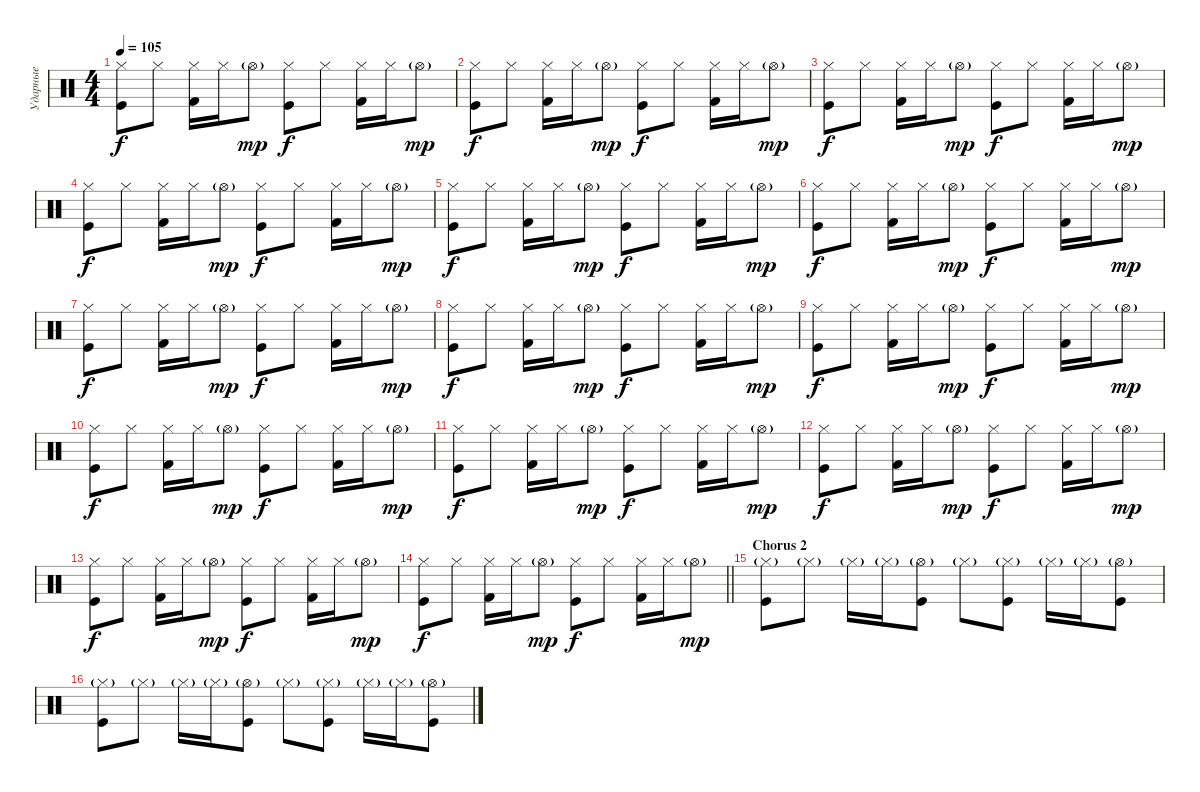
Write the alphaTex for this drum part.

\track ("Ударные" "Ударные") {instrument percussion}
\staff {score}
\articulation defaults
\ts (4 4)
\tempo 105
\clef neutral
\ks c
("Hi-Hat (closed)" "Kick (hit)").8{dy f} "Hi-Hat (closed)".8 ("Hi-Hat (closed)" "Kick (hit) 2").16 "Hi-Hat (closed)".16 "Hi-Hat (open)"{g}.8{dy mp} ("Hi-Hat (closed)" "Kick (hit)").8{dy f} "Hi-Hat (closed)".8 ("Hi-Hat (closed)" "Kick (hit) 2").16 "Hi-Hat (closed)".16 "Hi-Hat (open)"{g}.8{dy mp} |
("Hi-Hat (closed)" "Kick (hit)").8{dy f} "Hi-Hat (closed)".8 ("Hi-Hat (closed)" "Kick (hit) 2").16 "Hi-Hat (closed)".16 "Hi-Hat (open)"{g}.8{dy mp} ("Hi-Hat (closed)" "Kick (hit)").8{dy f} "Hi-Hat (closed)".8 ("Hi-Hat (closed)" "Kick (hit) 2").16 "Hi-Hat (closed)".16 "Hi-Hat (open)"{g}.8{dy mp} |
("Hi-Hat (closed)" "Kick (hit)").8{dy f} "Hi-Hat (closed)".8 ("Hi-Hat (closed)" "Kick (hit) 2").16 "Hi-Hat (closed)".16 "Hi-Hat (open)"{g}.8{dy mp} ("Hi-Hat (closed)" "Kick (hit)").8{dy f} "Hi-Hat (closed)".8 ("Hi-Hat (closed)" "Kick (hit) 2").16 "Hi-Hat (closed)".16 "Hi-Hat (open)"{g}.8{dy mp} |
("Hi-Hat (closed)" "Kick (hit)").8{dy f} "Hi-Hat (closed)".8 ("Hi-Hat (closed)" "Kick (hit) 2").16 "Hi-Hat (closed)".16 "Hi-Hat (open)"{g}.8{dy mp} ("Hi-Hat (closed)" "Kick (hit)").8{dy f} "Hi-Hat (closed)".8 ("Hi-Hat (closed)" "Kick (hit) 2").16 "Hi-Hat (closed)".16 "Hi-Hat (open)"{g}.8{dy mp} |
("Hi-Hat (closed)" "Kick (hit)").8{dy f} "Hi-Hat (closed)".8 ("Hi-Hat (closed)" "Kick (hit) 2").16 "Hi-Hat (closed)".16 "Hi-Hat (open)"{g}.8{dy mp} ("Hi-Hat (closed)" "Kick (hit)").8{dy f} "Hi-Hat (closed)".8 ("Hi-Hat (closed)" "Kick (hit) 2").16 "Hi-Hat (closed)".16 "Hi-Hat (open)"{g}.8{dy mp} |
("Hi-Hat (closed)" "Kick (hit)").8{dy f} "Hi-Hat (closed)".8 ("Hi-Hat (closed)" "Kick (hit) 2").16 "Hi-Hat (closed)".16 "Hi-Hat (open)"{g}.8{dy mp} ("Hi-Hat (closed)" "Kick (hit)").8{dy f} "Hi-Hat (closed)".8 ("Hi-Hat (closed)" "Kick (hit) 2").16 "Hi-Hat (closed)".16 "Hi-Hat (open)"{g}.8{dy mp} |
("Hi-Hat (closed)" "Kick (hit)").8{dy f} "Hi-Hat (closed)".8 ("Hi-Hat (closed)" "Kick (hit) 2").16 "Hi-Hat (closed)".16 "Hi-Hat (open)"{g}.8{dy mp} ("Hi-Hat (closed)" "Kick (hit)").8{dy f} "Hi-Hat (closed)".8 ("Hi-Hat (closed)" "Kick (hit) 2").16 "Hi-Hat (closed)".16 "Hi-Hat (open)"{g}.8{dy mp} |
("Hi-Hat (closed)" "Kick (hit)").8{dy f} "Hi-Hat (closed)".8 ("Hi-Hat (closed)" "Kick (hit) 2").16 "Hi-Hat (closed)".16 "Hi-Hat (open)"{g}.8{dy mp} ("Hi-Hat (closed)" "Kick (hit)").8{dy f} "Hi-Hat (closed)".8 ("Hi-Hat (closed)" "Kick (hit) 2").16 "Hi-Hat (closed)".16 "Hi-Hat (open)"{g}.8{dy mp} |
("Hi-Hat (closed)" "Kick (hit)").8{dy f} "Hi-Hat (closed)".8 ("Hi-Hat (closed)" "Kick (hit) 2").16 "Hi-Hat (closed)".16 "Hi-Hat (open)"{g}.8{dy mp} ("Hi-Hat (closed)" "Kick (hit)").8{dy f} "Hi-Hat (closed)".8 ("Hi-Hat (closed)" "Kick (hit) 2").16 "Hi-Hat (closed)".16 "Hi-Hat (open)"{g}.8{dy mp} |
("Hi-Hat (closed)" "Kick (hit)").8{dy f} "Hi-Hat (closed)".8 ("Hi-Hat (closed)" "Kick (hit) 2").16 "Hi-Hat (closed)".16 "Hi-Hat (open)"{g}.8{dy mp} ("Hi-Hat (closed)" "Kick (hit)").8{dy f} "Hi-Hat (closed)".8 ("Hi-Hat (closed)" "Kick (hit) 2").16 "Hi-Hat (closed)".16 "Hi-Hat (open)"{g}.8{dy mp} |
("Hi-Hat (closed)" "Kick (hit)").8{dy f} "Hi-Hat (closed)".8 ("Hi-Hat (closed)" "Kick (hit) 2").16 "Hi-Hat (closed)".16 "Hi-Hat (open)"{g}.8{dy mp} ("Hi-Hat (closed)" "Kick (hit)").8{dy f} "Hi-Hat (closed)".8 ("Hi-Hat (closed)" "Kick (hit) 2").16 "Hi-Hat (closed)".16 "Hi-Hat (open)"{g}.8{dy mp} |
("Hi-Hat (closed)" "Kick (hit)").8{dy f} "Hi-Hat (closed)".8 ("Hi-Hat (closed)" "Kick (hit) 2").16 "Hi-Hat (closed)".16 "Hi-Hat (open)"{g}.8{dy mp} ("Hi-Hat (closed)" "Kick (hit)").8{dy f} "Hi-Hat (closed)".8 ("Hi-Hat (closed)" "Kick (hit) 2").16 "Hi-Hat (closed)".16 "Hi-Hat (open)"{g}.8{dy mp} |
("Hi-Hat (closed)" "Kick (hit)").8{dy f} "Hi-Hat (closed)".8 ("Hi-Hat (closed)" "Kick (hit) 2").16 "Hi-Hat (closed)".16 "Hi-Hat (open)"{g}.8{dy mp} ("Hi-Hat (closed)" "Kick (hit)").8{dy f} "Hi-Hat (closed)".8 ("Hi-Hat (closed)" "Kick (hit) 2").16 "Hi-Hat (closed)".16 "Hi-Hat (open)"{g}.8{dy mp} |
\barLineRight lightlight
("Hi-Hat (closed)" "Kick (hit)").8{dy f} "Hi-Hat (closed)".8 ("Hi-Hat (closed)" "Kick (hit) 2").16 "Hi-Hat (closed)".16 "Hi-Hat (open)"{g}.8{dy mp} ("Hi-Hat (closed)" "Kick (hit)").8{dy f} "Hi-Hat (closed)".8 ("Hi-Hat (closed)" "Kick (hit) 2").16 "Hi-Hat (closed)".16 "Hi-Hat (open)"{g}.8{dy mp} |
\section ("" "Chorus 2")
("Hi-Hat (closed)"{g} "Kick (hit)").8 "Hi-Hat (closed)"{g}.8 "Hi-Hat (closed)"{g}.16 "Hi-Hat (closed)"{g}.16 ("Hi-Hat (open)"{g} "Kick (hit)").8 "Hi-Hat (closed)"{g}.8 ("Hi-Hat (closed)"{g} "Kick (hit)").8 "Hi-Hat (closed)"{g}.16 "Hi-Hat (closed)"{g}.16 ("Hi-Hat (open)"{g} "Kick (hit)").8 |
("Hi-Hat (closed)"{g} "Kick (hit)").8 "Hi-Hat (closed)"{g}.8 "Hi-Hat (closed)"{g}.16 "Hi-Hat (closed)"{g}.16 ("Hi-Hat (open)"{g} "Kick (hit)").8 "Hi-Hat (closed)"{g}.8 ("Hi-Hat (closed)"{g} "Kick (hit)").8 "Hi-Hat (closed)"{g}.16 "Hi-Hat (closed)"{g}.16 ("Hi-Hat (open)"{g} "Kick (hit)").8
